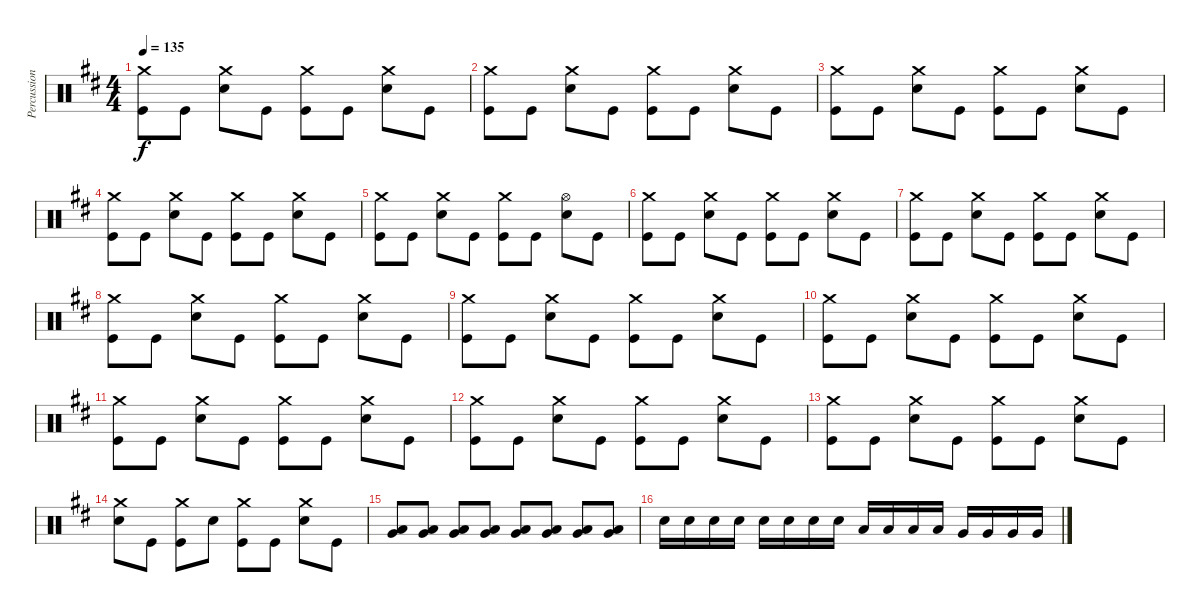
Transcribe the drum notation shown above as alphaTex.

\track ("Percussion" "Percussion") {instrument percussion}
\staff {score}
\articulation defaults
\ts (4 4)
\tempo 135
\clef neutral
\ks d
("Crash medium (hit)" "Kick (hit)").8{dy f} "Kick (hit)".8 ("Crash medium (hit)" "Electric Snare (hit)").8 "Kick (hit)".8 ("Crash medium (hit)" "Kick (hit)").8 "Kick (hit)".8 ("Crash medium (hit)" "Electric Snare (hit)").8 "Kick (hit)".8 |
("Crash medium (hit)" "Kick (hit)").8 "Kick (hit)".8 ("Crash medium (hit)" "Electric Snare (hit)").8 "Kick (hit)".8 ("Crash medium (hit)" "Kick (hit)").8 "Kick (hit)".8 ("Crash medium (hit)" "Electric Snare (hit)").8 "Kick (hit)".8 |
("Crash medium (hit)" "Kick (hit)").8 "Kick (hit)".8 ("Crash medium (hit)" "Electric Snare (hit)").8 "Kick (hit)".8 ("Crash medium (hit)" "Kick (hit)").8 "Kick (hit)".8 ("Crash medium (hit)" "Electric Snare (hit)").8 "Kick (hit)".8 |
("Crash medium (hit)" "Kick (hit)").8 "Kick (hit)".8 ("Crash medium (hit)" "Electric Snare (hit)").8 "Kick (hit)".8 ("Crash medium (hit)" "Kick (hit)").8 "Kick (hit)".8 ("Crash medium (hit)" "Electric Snare (hit)").8 "Kick (hit)".8 |
("Crash medium (hit)" "Kick (hit)").8 "Kick (hit)".8 ("Crash medium (hit)" "Electric Snare (hit)").8 "Kick (hit)".8 ("Crash medium (hit)" "Kick (hit)").8 "Kick (hit)".8 ("Hi-Hat (open)" "Electric Snare (hit)").8 "Kick (hit)".8 |
("Crash medium (hit)" "Kick (hit)").8 "Kick (hit)".8 ("Crash medium (hit)" "Electric Snare (hit)").8 "Kick (hit)".8 ("Crash medium (hit)" "Kick (hit)").8 "Kick (hit)".8 ("Crash medium (hit)" "Electric Snare (hit)").8 "Kick (hit)".8 |
("Crash medium (hit)" "Kick (hit)").8 "Kick (hit)".8 ("Crash medium (hit)" "Electric Snare (hit)").8 "Kick (hit)".8 ("Crash medium (hit)" "Kick (hit)").8 "Kick (hit)".8 ("Crash medium (hit)" "Electric Snare (hit)").8 "Kick (hit)".8 |
("Crash medium (hit)" "Kick (hit)").8 "Kick (hit)".8 ("Crash medium (hit)" "Electric Snare (hit)").8 "Kick (hit)".8 ("Crash medium (hit)" "Kick (hit)").8 "Kick (hit)".8 ("Crash medium (hit)" "Electric Snare (hit)").8 "Kick (hit)".8 |
("Crash medium (hit)" "Kick (hit)").8 "Kick (hit)".8 ("Crash medium (hit)" "Electric Snare (hit)").8 "Kick (hit)".8 ("Crash medium (hit)" "Kick (hit)").8 "Kick (hit)".8 ("Crash medium (hit)" "Electric Snare (hit)").8 "Kick (hit)".8 |
("Crash medium (hit)" "Kick (hit)").8 "Kick (hit)".8 ("Crash medium (hit)" "Electric Snare (hit)").8 "Kick (hit)".8 ("Crash medium (hit)" "Kick (hit)").8 "Kick (hit)".8 ("Crash medium (hit)" "Electric Snare (hit)").8 "Kick (hit)".8 |
("Crash medium (hit)" "Kick (hit)").8 "Kick (hit)".8 ("Crash medium (hit)" "Electric Snare (hit)").8 "Kick (hit)".8 ("Crash medium (hit)" "Kick (hit)").8 "Kick (hit)".8 ("Crash medium (hit)" "Electric Snare (hit)").8 "Kick (hit)".8 |
("Crash medium (hit)" "Kick (hit)").8 "Kick (hit)".8 ("Crash medium (hit)" "Electric Snare (hit)").8 "Kick (hit)".8 ("Crash medium (hit)" "Kick (hit)").8 "Kick (hit)".8 ("Crash medium (hit)" "Electric Snare (hit)").8 "Kick (hit)".8 |
("Crash medium (hit)" "Kick (hit)").8 "Kick (hit)".8 ("Crash medium (hit)" "Electric Snare (hit)").8 "Kick (hit)".8 ("Crash medium (hit)" "Kick (hit)").8 "Kick (hit)".8 ("Crash medium (hit)" "Electric Snare (hit)").8 "Kick (hit)".8 |
("Crash medium (hit)" "Electric Snare (hit)").8 "Kick (hit)".8 ("Crash medium (hit)" "Kick (hit)").8 "Electric Snare (hit)".8 ("Crash medium (hit)" "Kick (hit)").8 "Kick (hit)".8 ("Crash medium (hit)" "Electric Snare (hit)").8 "Kick (hit)".8 |
("Low Floor Tom (hit)" "Very Low Tom (hit)").8 ("Low Floor Tom (hit)" "Very Low Tom (hit)").8 ("Low Floor Tom (hit)" "Very Low Tom (hit)").8 ("Low Floor Tom (hit)" "Very Low Tom (hit)").8 ("Low Floor Tom (hit)" "Very Low Tom (hit)").8 ("Low Floor Tom (hit)" "Very Low Tom (hit)").8 ("Low Floor Tom (hit)" "Very Low Tom (hit)").8 ("Low Floor Tom (hit)" "Very Low Tom (hit)").8 |
"Electric Snare (hit)".16 "Electric Snare (hit)".16 "Electric Snare (hit)".16 "Electric Snare (hit)".16 "Electric Snare (hit)".16 "Electric Snare (hit)".16 "Electric Snare (hit)".16 "Electric Snare (hit)".16 "Low Tom (hit)".16 "Low Tom (hit)".16 "Low Tom (hit)".16 "Low Tom (hit)".16 "Very Low Tom (hit)".16 "Very Low Tom (hit)".16 "Very Low Tom (hit)".16 "Very Low Tom (hit)".16
